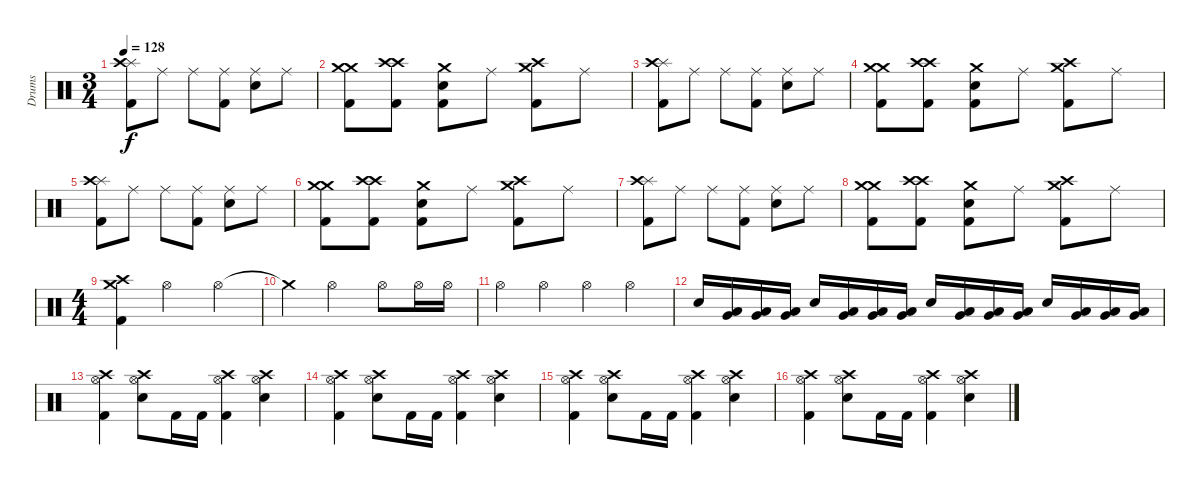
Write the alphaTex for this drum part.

\track ("Drums" "Drums") {instrument percussion}
\staff {score}
\articulation defaults
\ts (3 4)
\tempo 128
\clef neutral
\ks c
("Splash (hit)" "Crash high (hit)" "Kick (hit) 2").8{dy f} "Ride (middle)".8 "Ride (middle)".8 ("Ride (middle)" "Kick (hit) 2").8 ("Ride (middle)" "Snare (hit) 2").8 "Ride (middle)".8 |
("Crash medium (hit)" "Crash medium (hit)" "Kick (hit) 2").8 ("Crash high (hit)" "Crash high (hit)" "Kick (hit) 2").8 ("Crash medium (hit)" "Snare (hit) 2" "Kick (hit) 2").8 "Ride (middle)".8 ("Crash medium (hit)" "Crash high (hit)" "Kick (hit) 2").8 "Ride (middle)".8 |
("Splash (hit)" "Crash high (hit)" "Kick (hit) 2").8 "Ride (middle)".8 "Ride (middle)".8 ("Ride (middle)" "Kick (hit) 2").8 ("Ride (middle)" "Snare (hit) 2").8 "Ride (middle)".8 |
("Crash medium (hit)" "Crash medium (hit)" "Kick (hit) 2").8 ("Crash high (hit)" "Crash high (hit)" "Kick (hit) 2").8 ("Crash medium (hit)" "Snare (hit) 2" "Kick (hit) 2").8 "Ride (middle)".8 ("Crash medium (hit)" "Crash high (hit)" "Kick (hit) 2").8 "Ride (middle)".8 |
("Splash (hit)" "Crash high (hit)" "Kick (hit) 2").8 "Ride (middle)".8 "Ride (middle)".8 ("Ride (middle)" "Kick (hit) 2").8 ("Ride (middle)" "Snare (hit) 2").8 "Ride (middle)".8 |
("Crash medium (hit)" "Crash medium (hit)" "Kick (hit) 2").8 ("Crash high (hit)" "Crash high (hit)" "Kick (hit) 2").8 ("Crash medium (hit)" "Snare (hit) 2" "Kick (hit) 2").8 "Ride (middle)".8 ("Crash medium (hit)" "Crash high (hit)" "Kick (hit) 2").8 "Ride (middle)".8 |
("Splash (hit)" "Crash high (hit)" "Kick (hit) 2").8 "Ride (middle)".8 "Ride (middle)".8 ("Ride (middle)" "Kick (hit) 2").8 ("Ride (middle)" "Snare (hit) 2").8 "Ride (middle)".8 |
("Crash medium (hit)" "Crash medium (hit)" "Kick (hit) 2").8 ("Crash high (hit)" "Crash high (hit)" "Kick (hit) 2").8 ("Crash medium (hit)" "Snare (hit) 2" "Kick (hit) 2").8 "Ride (middle)".8 ("Crash medium (hit)" "Crash high (hit)" "Kick (hit) 2").8 "Ride (middle)".8 |
\ts (4 4)
("Crash medium (hit)" "Crash high (hit)" "Kick (hit) 2").4 "Hi-Hat (open)".2 "Hi-Hat (open)".4 |
"Crash medium (hit)"{t}.4 "Hi-Hat (open)".2 "Hi-Hat (open)".8 "Hi-Hat (open)".16 "Hi-Hat (open)".16 |
"Hi-Hat (open)".4 "Hi-Hat (open)".4 "Hi-Hat (open)".4 "Hi-Hat (open)".4 |
"Snare (hit) 2".16 ("Very Low Tom (hit)" "Low Tom (hit)").16 ("Very Low Tom (hit)" "Low Tom (hit)").16 ("Very Low Tom (hit)" "Low Tom (hit)").16 "Snare (hit) 2".16 ("Very Low Tom (hit)" "Low Tom (hit)").16 ("Very Low Tom (hit)" "Low Tom (hit)").16 ("Very Low Tom (hit)" "Low Tom (hit)").16 "Snare (hit) 2".16 ("Very Low Tom (hit)" "Low Tom (hit)").16 ("Very Low Tom (hit)" "Low Tom (hit)").16 ("Very Low Tom (hit)" "Low Tom (hit)").16 "Snare (hit) 2".16 ("Very Low Tom (hit)" "Low Tom (hit)").16 ("Very Low Tom (hit)" "Low Tom (hit)").16 ("Very Low Tom (hit)" "Low Tom (hit)").16 |
("Hi-Hat (open)" "Crash high (hit)" "Kick (hit) 2").4 ("Hi-Hat (open)" "Snare (hit) 2" "Crash high (hit)").8 "Kick (hit) 2".16 "Kick (hit) 2".16 ("Hi-Hat (open)" "Crash high (hit)" "Kick (hit) 2").4 ("Hi-Hat (open)" "Snare (hit) 2" "Crash high (hit)").4 |
("Hi-Hat (open)" "Crash high (hit)" "Kick (hit) 2").4 ("Hi-Hat (open)" "Snare (hit) 2" "Crash high (hit)").8 "Kick (hit) 2".16 "Kick (hit) 2".16 ("Hi-Hat (open)" "Crash high (hit)" "Kick (hit) 2").4 ("Hi-Hat (open)" "Snare (hit) 2" "Crash high (hit)").4 |
("Hi-Hat (open)" "Crash high (hit)" "Kick (hit) 2").4 ("Hi-Hat (open)" "Snare (hit) 2" "Crash high (hit)").8 "Kick (hit) 2".16 "Kick (hit) 2".16 ("Hi-Hat (open)" "Crash high (hit)" "Kick (hit) 2").4 ("Hi-Hat (open)" "Snare (hit) 2" "Crash high (hit)").4 |
("Hi-Hat (open)" "Crash high (hit)" "Kick (hit) 2").4 ("Hi-Hat (open)" "Snare (hit) 2" "Crash high (hit)").8 "Kick (hit) 2".16 "Kick (hit) 2".16 ("Hi-Hat (open)" "Crash high (hit)" "Kick (hit) 2").4 ("Hi-Hat (open)" "Snare (hit) 2" "Crash high (hit)").4
